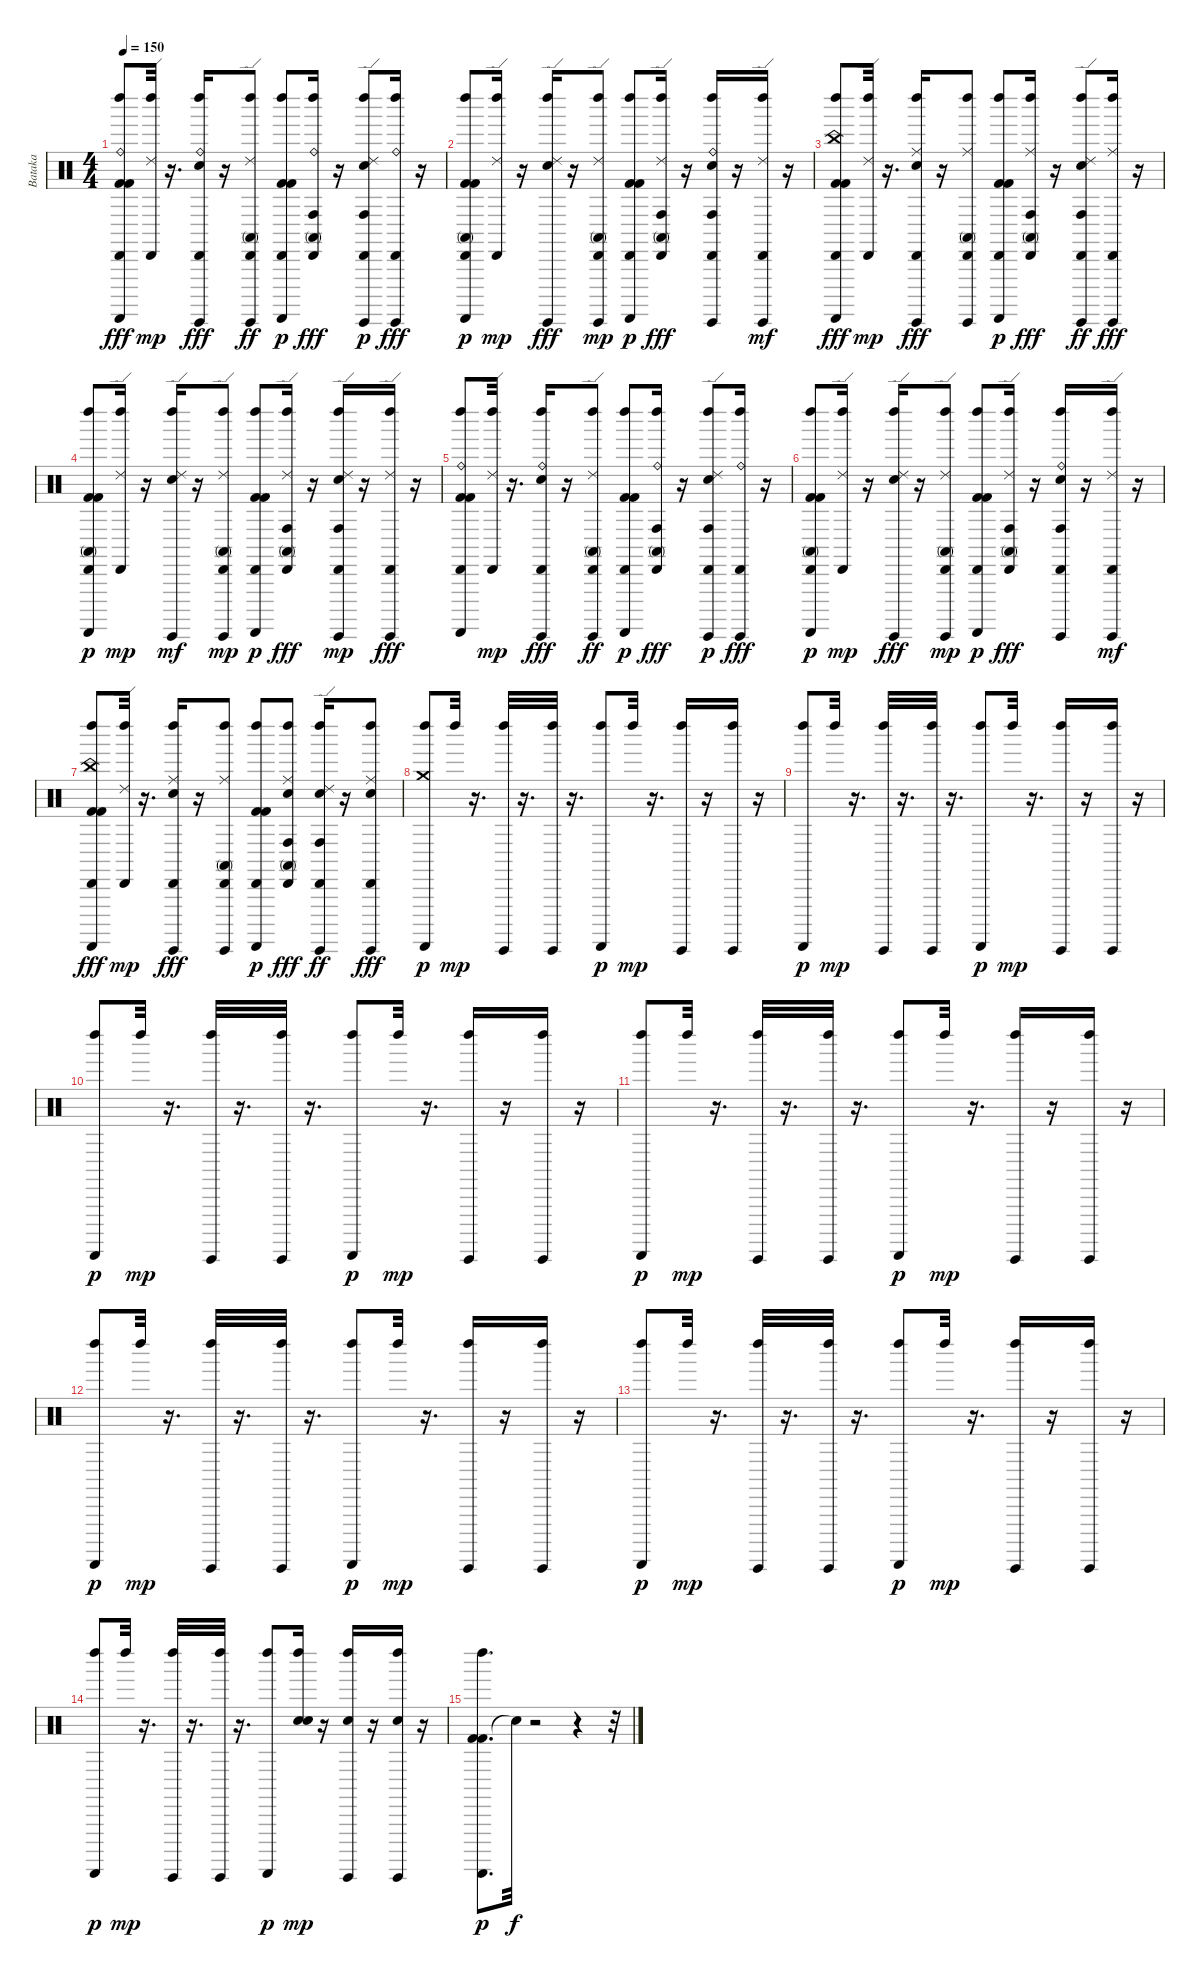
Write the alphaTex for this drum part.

\track ("Bataka" "Bataka") {instrument percussion}
\staff {score}
\articulation defaults
\ts (4 4)
\tempo 150
\clef neutral
\ks c
("Kick (hit) 2" "Kick (hit) 2" "Cabasa (hit)" "Guiro (scrap-return)" "Left Maraca (hit)" "Ride (bell)").8{dy fff} ("Cabasa (hit)" "Left Maraca (hit)" "Ride (edge) 2").32{dy mp} r.16{d} ("Electric Snare (hit)" "Cabasa (hit)" "Guiro (hit)" "Left Maraca (hit)" "Ride (bell)").16{dy fff} r.16 ("Conga high (mute)" "Cabasa (hit)" "Guiro (hit)" "Left Maraca (hit)" "Ride (edge) 2").8{dy ff} ("Kick (hit) 2" "Kick (hit) 2" "Cabasa (hit)" "Guiro (scrap-return)" "Left Maraca (hit)").8{dy p} ("Conga high (hit)" "Conga high (mute)" "Cabasa (hit)" "Left Maraca (hit)" "Ride (bell)").16{dy fff} r.16 ("Electric Snare (hit)" "Conga high (hit)" "Cabasa (hit)" "Guiro (hit)" "Left Maraca (hit)" "Ride (edge) 2").8{dy p} ("Cabasa (hit)" "Guiro (hit)" "Left Maraca (hit)" "Ride (bell)").16{dy fff} r.16 |
("Kick (hit) 2" "Kick (hit) 2" "Conga high (mute)" "Cabasa (hit)" "Guiro (scrap-return)" "Left Maraca (hit)").8{dy p} ("Cabasa (hit)" "Left Maraca (hit)" "Ride (edge) 2").16{dy mp} r.16 ("Electric Snare (hit)" "Guiro (hit)" "Left Maraca (hit)" "Ride (edge) 2").16{dy fff} r.16 ("Conga high (mute)" "Cabasa (hit)" "Guiro (hit)" "Left Maraca (hit)" "Ride (edge) 2").8{dy mp} ("Kick (hit) 2" "Kick (hit) 2" "Cabasa (hit)" "Guiro (scrap-return)" "Left Maraca (hit)").8{dy p} ("Conga high (hit)" "Conga high (mute)" "Cabasa (hit)" "Left Maraca (hit)" "Ride (edge) 2").16{dy fff} r.16 ("Electric Snare (hit)" "Conga high (hit)" "Cabasa (hit)" "Guiro (hit)" "Left Maraca (hit)" "Ride (bell)").16 r.16 ("Cabasa (hit)" "Guiro (hit)" "Left Maraca (hit)" "Ride (edge) 2").16{dy mf} r.16 |
("Kick (hit) 2" "Kick (hit) 2" "Cabasa (hit)" "Guiro (scrap-return)" "Left Maraca (hit)" "China (hit)").8{dy fff} ("Cabasa (hit)" "Left Maraca (hit)" "Ride (edge) 2").32{dy mp} r.16{d} ("Electric Snare (hit)" "Cabasa (hit)" "Guiro (hit)" "Left Maraca (hit)" "Ride (middle)").16{dy fff} r.16 ("Conga high (mute)" "Cabasa (hit)" "Guiro (hit)" "Left Maraca (hit)" "Ride (middle)").8 ("Kick (hit) 2" "Kick (hit) 2" "Cabasa (hit)" "Guiro (scrap-return)" "Left Maraca (hit)").8{dy p} ("Conga high (hit)" "Conga high (mute)" "Cabasa (hit)" "Left Maraca (hit)" "Ride (middle)").16{dy fff} r.16 ("Electric Snare (hit)" "Conga high (hit)" "Cabasa (hit)" "Guiro (hit)" "Left Maraca (hit)" "Ride (edge) 2").8{dy ff} ("Cabasa (hit)" "Guiro (hit)" "Left Maraca (hit)" "Ride (middle)").16{dy fff} r.16 |
("Kick (hit) 2" "Kick (hit) 2" "Conga high (mute)" "Cabasa (hit)" "Guiro (scrap-return)" "Left Maraca (hit)").8{dy p} ("Cabasa (hit)" "Left Maraca (hit)" "Ride (edge) 2").16{dy mp} r.16 ("Electric Snare (hit)" "Guiro (hit)" "Left Maraca (hit)" "Ride (edge) 2").16{dy mf} r.16 ("Conga high (mute)" "Cabasa (hit)" "Guiro (hit)" "Left Maraca (hit)" "Ride (edge) 2").8{dy mp} ("Kick (hit) 2" "Kick (hit) 2" "Cabasa (hit)" "Guiro (scrap-return)" "Left Maraca (hit)").8{dy p} ("Conga high (hit)" "Conga high (mute)" "Cabasa (hit)" "Left Maraca (hit)" "Ride (edge) 2").16{dy fff} r.16 ("Electric Snare (hit)" "Conga high (hit)" "Cabasa (hit)" "Guiro (hit)" "Left Maraca (hit)" "Ride (edge) 2").16{dy mp} r.16 ("Cabasa (hit)" "Guiro (hit)" "Left Maraca (hit)" "Ride (edge) 2").16{dy fff} r.16 |
("Kick (hit) 2" "Kick (hit) 2" "Cabasa (hit)" "Guiro (scrap-return)" "Left Maraca (hit)" "Ride (bell)").8 ("Cabasa (hit)" "Left Maraca (hit)" "Ride (edge) 2").32{dy mp} r.16{d} ("Electric Snare (hit)" "Cabasa (hit)" "Guiro (hit)" "Left Maraca (hit)" "Ride (bell)").16{dy fff} r.16 ("Conga high (mute)" "Cabasa (hit)" "Guiro (hit)" "Left Maraca (hit)" "Ride (edge) 2").8{dy ff} ("Kick (hit) 2" "Kick (hit) 2" "Cabasa (hit)" "Guiro (scrap-return)" "Left Maraca (hit)").8{dy p} ("Conga high (hit)" "Conga high (mute)" "Cabasa (hit)" "Left Maraca (hit)" "Ride (bell)").16{dy fff} r.16 ("Electric Snare (hit)" "Conga high (hit)" "Cabasa (hit)" "Guiro (hit)" "Left Maraca (hit)" "Ride (edge) 2").8{dy p} ("Cabasa (hit)" "Guiro (hit)" "Left Maraca (hit)" "Ride (bell)").16{dy fff} r.16 |
("Kick (hit) 2" "Kick (hit) 2" "Conga high (mute)" "Cabasa (hit)" "Guiro (scrap-return)" "Left Maraca (hit)").8{dy p} ("Cabasa (hit)" "Left Maraca (hit)" "Ride (edge) 2").16{dy mp} r.16 ("Electric Snare (hit)" "Guiro (hit)" "Left Maraca (hit)" "Ride (edge) 2").16{dy fff} r.16 ("Conga high (mute)" "Cabasa (hit)" "Guiro (hit)" "Left Maraca (hit)" "Ride (edge) 2").8{dy mp} ("Kick (hit) 2" "Kick (hit) 2" "Cabasa (hit)" "Guiro (scrap-return)" "Left Maraca (hit)").8{dy p} ("Conga high (hit)" "Conga high (mute)" "Cabasa (hit)" "Left Maraca (hit)" "Ride (edge) 2").16{dy fff} r.16 ("Electric Snare (hit)" "Conga high (hit)" "Cabasa (hit)" "Guiro (hit)" "Left Maraca (hit)" "Ride (bell)").16 r.16 ("Cabasa (hit)" "Guiro (hit)" "Left Maraca (hit)" "Ride (edge) 2").16{dy mf} r.16 |
("Kick (hit) 2" "Kick (hit) 2" "Cabasa (hit)" "Guiro (scrap-return)" "Left Maraca (hit)" "China (hit)").8{dy fff} ("Cabasa (hit)" "Left Maraca (hit)" "Ride (edge) 2").32{dy mp} r.16{d} ("Electric Snare (hit)" "Cabasa (hit)" "Guiro (hit)" "Left Maraca (hit)" "Ride (middle)").16{dy fff} r.16 ("Conga high (mute)" "Cabasa (hit)" "Guiro (hit)" "Left Maraca (hit)" "Ride (middle)").8 ("Kick (hit) 2" "Kick (hit) 2" "Cabasa (hit)" "Guiro (scrap-return)" "Left Maraca (hit)").8{dy p} ("Electric Snare (hit)" "Conga high (hit)" "Conga high (mute)" "Cabasa (hit)" "Left Maraca (hit)" "Ride (middle)").8{dy fff} ("Electric Snare (hit)" "Conga high (hit)" "Cabasa (hit)" "Guiro (hit)" "Left Maraca (hit)" "Ride (edge) 2").16{dy ff} r.16 ("Electric Snare (hit)" "Cabasa (hit)" "Guiro (hit)" "Left Maraca (hit)" "Ride (middle)").8{dy fff} |
("Guiro (scrap-return)" "Left Maraca (hit)" "Crash medium (hit)").8{dy p} "Left Maraca (hit)".32{dy mp} r.16{d} ("Guiro (hit)" "Left Maraca (hit)").32 r.16{d} ("Guiro (hit)" "Left Maraca (hit)").32 r.16{d} ("Guiro (scrap-return)" "Left Maraca (hit)").8{dy p} "Left Maraca (hit)".32{dy mp} r.16{d} ("Guiro (hit)" "Left Maraca (hit)").16 r.16 ("Guiro (hit)" "Left Maraca (hit)").16 r.16 |
("Guiro (scrap-return)" "Left Maraca (hit)").8{dy p} "Left Maraca (hit)".32{dy mp} r.16{d} ("Guiro (hit)" "Left Maraca (hit)").32 r.16{d} ("Guiro (hit)" "Left Maraca (hit)").32 r.16{d} ("Guiro (scrap-return)" "Left Maraca (hit)").8{dy p} "Left Maraca (hit)".32{dy mp} r.16{d} ("Guiro (hit)" "Left Maraca (hit)").16 r.16 ("Guiro (hit)" "Left Maraca (hit)").16 r.16 |
("Guiro (scrap-return)" "Left Maraca (hit)").8{dy p} "Left Maraca (hit)".32{dy mp} r.16{d} ("Guiro (hit)" "Left Maraca (hit)").32 r.16{d} ("Guiro (hit)" "Left Maraca (hit)").32 r.16{d} ("Guiro (scrap-return)" "Left Maraca (hit)").8{dy p} "Left Maraca (hit)".32{dy mp} r.16{d} ("Guiro (hit)" "Left Maraca (hit)").16 r.16 ("Guiro (hit)" "Left Maraca (hit)").16 r.16 |
("Guiro (scrap-return)" "Left Maraca (hit)").8{dy p} "Left Maraca (hit)".32{dy mp} r.16{d} ("Guiro (hit)" "Left Maraca (hit)").32 r.16{d} ("Guiro (hit)" "Left Maraca (hit)").32 r.16{d} ("Guiro (scrap-return)" "Left Maraca (hit)").8{dy p} "Left Maraca (hit)".32{dy mp} r.16{d} ("Guiro (hit)" "Left Maraca (hit)").16 r.16 ("Guiro (hit)" "Left Maraca (hit)").16 r.16 |
("Guiro (scrap-return)" "Left Maraca (hit)").8{dy p} "Left Maraca (hit)".32{dy mp} r.16{d} ("Guiro (hit)" "Left Maraca (hit)").32 r.16{d} ("Guiro (hit)" "Left Maraca (hit)").32 r.16{d} ("Guiro (scrap-return)" "Left Maraca (hit)").8{dy p} "Left Maraca (hit)".32{dy mp} r.16{d} ("Guiro (hit)" "Left Maraca (hit)").16 r.16 ("Guiro (hit)" "Left Maraca (hit)").16 r.16 |
("Guiro (scrap-return)" "Left Maraca (hit)").8{dy p} "Left Maraca (hit)".32{dy mp} r.16{d} ("Guiro (hit)" "Left Maraca (hit)").32 r.16{d} ("Guiro (hit)" "Left Maraca (hit)").32 r.16{d} ("Guiro (scrap-return)" "Left Maraca (hit)").8{dy p} "Left Maraca (hit)".32{dy mp} r.16{d} ("Guiro (hit)" "Left Maraca (hit)").16 r.16 ("Guiro (hit)" "Left Maraca (hit)").16 r.16 |
("Guiro (scrap-return)" "Left Maraca (hit)").8{dy p} "Left Maraca (hit)".32{dy mp} r.16{d} ("Guiro (hit)" "Left Maraca (hit)").32 r.16{d} ("Guiro (hit)" "Left Maraca (hit)").32 r.16{d} ("Guiro (scrap-return)" "Left Maraca (hit)").8{dy p} ("Electric Snare (hit)" "Electric Snare (hit)" "Left Maraca (hit)").16{dy mp} r.16 ("Electric Snare (hit)" "Guiro (hit)" "Left Maraca (hit)").16 r.16 ("Electric Snare (hit)" "Guiro (hit)" "Left Maraca (hit)").16 r.16 |
("Kick (hit) 2" "Kick (hit) 2" "Guiro (scrap-return)" "Left Maraca (hit)").8{d dy p} "Snare (hit)"{t}.32{dy f} r.2 r.4 r.32
